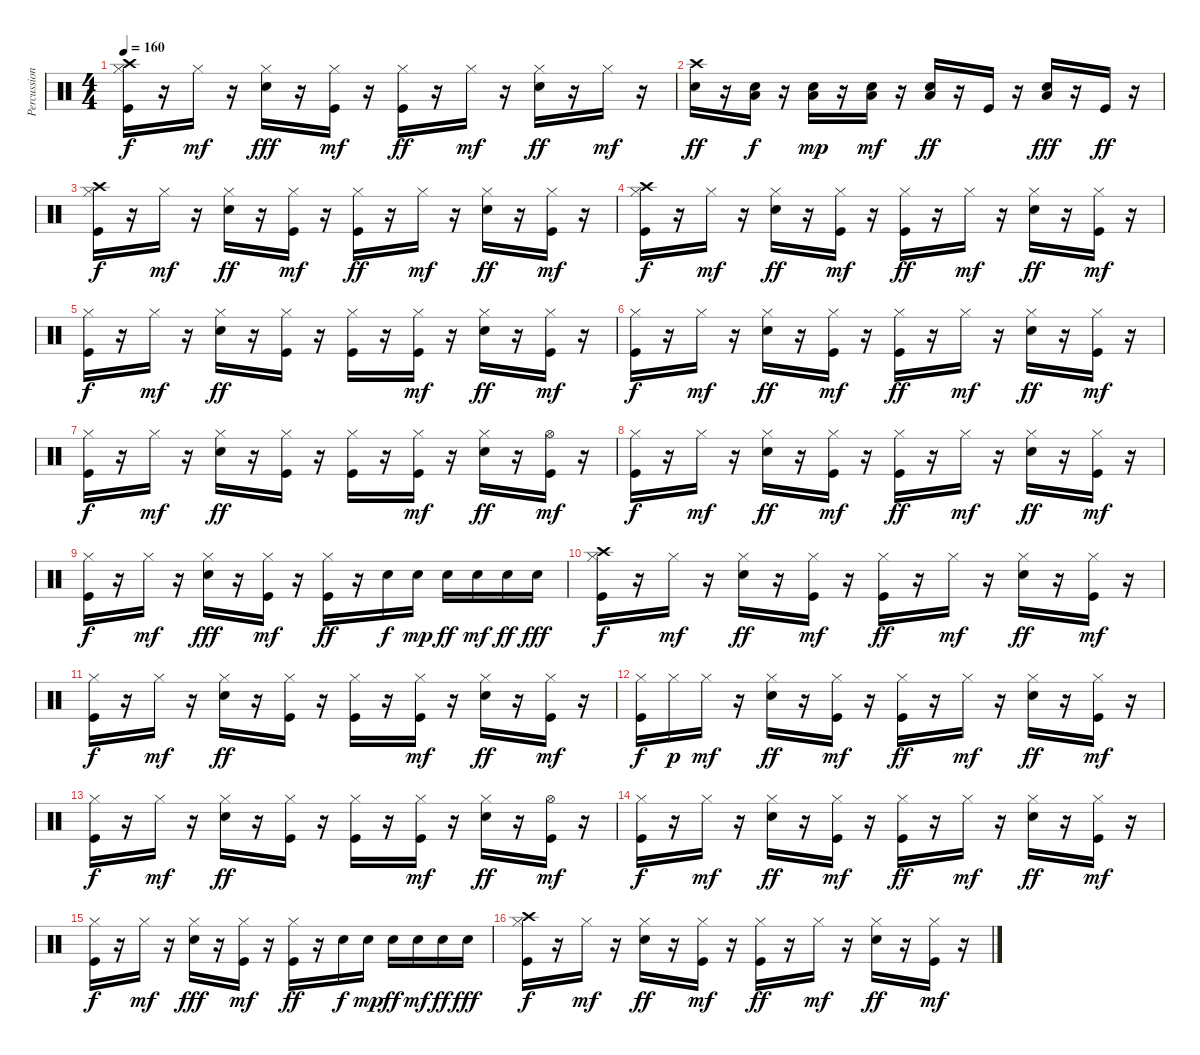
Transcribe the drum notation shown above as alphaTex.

\track ("Percussions" "Percussion") {instrument percussion}
\staff {score}
\articulation defaults
\ts (4 4)
\tempo 160
\clef neutral
\ks c
("Kick (hit)" "Hi-Hat (closed)" "Crash high (hit)").16{dy f} r.16 "Hi-Hat (closed)".16{dy mf} r.16 ("Snare (hit) 2" "Hi-Hat (closed)").16{dy fff} r.16 ("Kick (hit)" "Hi-Hat (closed)").16{dy mf} r.16 ("Kick (hit)" "Hi-Hat (closed)").16{dy ff} r.16 "Hi-Hat (closed)".16{dy mf} r.16 ("Snare (hit) 2" "Hi-Hat (closed)").16{dy ff} r.16 "Hi-Hat (closed)".16{dy mf} r.16 |
("Snare (hit) 2" "Crash high (hit)").16{dy ff} r.16 ("Snare (hit) 2" "Low Floor Tom (hit)").16{dy f} r.16 ("Snare (hit) 2" "Low Floor Tom (hit)").16{dy mp} r.16 ("Snare (hit) 2" "Low Floor Tom (hit)").16{dy mf} r.16 ("Snare (hit) 2" "Low Floor Tom (hit)").16{dy ff} r.16 "Kick (hit)".16 r.16 ("Snare (hit) 2" "Low Floor Tom (hit)").16{dy fff} r.16 "Kick (hit)".16{dy ff} r.16 |
("Kick (hit)" "Hi-Hat (closed)" "Crash high (hit)").16{dy f} r.16 "Hi-Hat (closed)".16{dy mf} r.16 ("Snare (hit) 2" "Hi-Hat (closed)").16{dy ff} r.16 ("Kick (hit)" "Hi-Hat (closed)").16{dy mf} r.16 ("Kick (hit)" "Hi-Hat (closed)").16{dy ff} r.16 "Hi-Hat (closed)".16{dy mf} r.16 ("Snare (hit) 2" "Hi-Hat (closed)").16{dy ff} r.16 ("Kick (hit)" "Hi-Hat (closed)").16{dy mf} r.16 |
("Kick (hit)" "Hi-Hat (closed)" "Crash high (hit)").16{dy f} r.16 "Hi-Hat (closed)".16{dy mf} r.16 ("Snare (hit) 2" "Hi-Hat (closed)").16{dy ff} r.16 ("Kick (hit)" "Hi-Hat (closed)").16{dy mf} r.16 ("Kick (hit)" "Hi-Hat (closed)").16{dy ff} r.16 "Hi-Hat (closed)".16{dy mf} r.16 ("Snare (hit) 2" "Hi-Hat (closed)").16{dy ff} r.16 ("Kick (hit)" "Hi-Hat (closed)").16{dy mf} r.16 |
("Kick (hit)" "Hi-Hat (closed)").16{dy f} r.16 "Hi-Hat (closed)".16{dy mf} r.16 ("Snare (hit) 2" "Hi-Hat (closed)").16{dy ff} r.16 ("Kick (hit)" "Hi-Hat (closed)").16 r.16 ("Kick (hit)" "Hi-Hat (closed)").16 r.16 ("Kick (hit)" "Hi-Hat (closed)").16{dy mf} r.16 ("Snare (hit) 2" "Hi-Hat (closed)").16{dy ff} r.16 ("Kick (hit)" "Hi-Hat (closed)").16{dy mf} r.16 |
("Kick (hit)" "Hi-Hat (closed)").16{dy f} r.16 "Hi-Hat (closed)".16{dy mf} r.16 ("Snare (hit) 2" "Hi-Hat (closed)").16{dy ff} r.16 ("Kick (hit)" "Hi-Hat (closed)").16{dy mf} r.16 ("Kick (hit)" "Hi-Hat (closed)").16{dy ff} r.16 "Hi-Hat (closed)".16{dy mf} r.16 ("Snare (hit) 2" "Hi-Hat (closed)").16{dy ff} r.16 ("Kick (hit)" "Hi-Hat (closed)").16{dy mf} r.16 |
("Kick (hit)" "Hi-Hat (closed)").16{dy f} r.16 "Hi-Hat (closed)".16{dy mf} r.16 ("Snare (hit) 2" "Hi-Hat (closed)").16{dy ff} r.16 ("Kick (hit)" "Hi-Hat (closed)").16 r.16 ("Kick (hit)" "Hi-Hat (closed)").16 r.16 ("Kick (hit)" "Hi-Hat (closed)").16{dy mf} r.16 ("Snare (hit) 2" "Hi-Hat (closed)").16{dy ff} r.16 ("Kick (hit)" "Hi-Hat (open)").16{dy mf} r.16 |
("Kick (hit)" "Hi-Hat (closed)").16{dy f} r.16 "Hi-Hat (closed)".16{dy mf} r.16 ("Snare (hit) 2" "Hi-Hat (closed)").16{dy ff} r.16 ("Kick (hit)" "Hi-Hat (closed)").16{dy mf} r.16 ("Kick (hit)" "Hi-Hat (closed)").16{dy ff} r.16 "Hi-Hat (closed)".16{dy mf} r.16 ("Snare (hit) 2" "Hi-Hat (closed)").16{dy ff} r.16 ("Kick (hit)" "Hi-Hat (closed)").16{dy mf} r.16 |
("Kick (hit)" "Hi-Hat (closed)").16{dy f} r.16 "Hi-Hat (closed)".16{dy mf} r.16 ("Snare (hit) 2" "Hi-Hat (closed)").16{dy fff} r.16 ("Kick (hit)" "Hi-Hat (closed)").16{dy mf} r.16 ("Kick (hit)" "Hi-Hat (closed)").16{dy ff} r.16 "Snare (hit) 2".16{dy f} "Snare (hit) 2".16{dy mp} "Snare (hit) 2".16{dy ff} "Snare (hit) 2".16{dy mf} "Snare (hit) 2".16{dy ff} "Snare (hit) 2".16{dy fff} |
("Kick (hit)" "Hi-Hat (closed)" "Crash high (hit)").16{dy f} r.16 "Hi-Hat (closed)".16{dy mf} r.16 ("Snare (hit) 2" "Hi-Hat (closed)").16{dy ff} r.16 ("Kick (hit)" "Hi-Hat (closed)").16{dy mf} r.16 ("Kick (hit)" "Hi-Hat (closed)").16{dy ff} r.16 "Hi-Hat (closed)".16{dy mf} r.16 ("Snare (hit) 2" "Hi-Hat (closed)").16{dy ff} r.16 ("Kick (hit)" "Hi-Hat (closed)").16{dy mf} r.16 |
("Kick (hit)" "Hi-Hat (closed)").16{dy f} r.16 "Hi-Hat (closed)".16{dy mf} r.16 ("Snare (hit) 2" "Hi-Hat (closed)").16{dy ff} r.16 ("Kick (hit)" "Hi-Hat (closed)").16 r.16 ("Kick (hit)" "Hi-Hat (closed)").16 r.16 ("Kick (hit)" "Hi-Hat (closed)").16{dy mf} r.16 ("Snare (hit) 2" "Hi-Hat (closed)").16{dy ff} r.16 ("Kick (hit)" "Hi-Hat (closed)").16{dy mf} r.16 |
("Kick (hit)" "Hi-Hat (closed)").16{dy f} "Hi-Hat (closed)".16{dy p} "Hi-Hat (closed)".16{dy mf} r.16 ("Snare (hit) 2" "Hi-Hat (closed)").16{dy ff} r.16 ("Kick (hit)" "Hi-Hat (closed)").16{dy mf} r.16 ("Kick (hit)" "Hi-Hat (closed)").16{dy ff} r.16 "Hi-Hat (closed)".16{dy mf} r.16 ("Snare (hit) 2" "Hi-Hat (closed)").16{dy ff} r.16 ("Kick (hit)" "Hi-Hat (closed)").16{dy mf} r.16 |
("Kick (hit)" "Hi-Hat (closed)").16{dy f} r.16 "Hi-Hat (closed)".16{dy mf} r.16 ("Snare (hit) 2" "Hi-Hat (closed)").16{dy ff} r.16 ("Kick (hit)" "Hi-Hat (closed)").16 r.16 ("Kick (hit)" "Hi-Hat (closed)").16 r.16 ("Kick (hit)" "Hi-Hat (closed)").16{dy mf} r.16 ("Snare (hit) 2" "Hi-Hat (closed)").16{dy ff} r.16 ("Kick (hit)" "Hi-Hat (open)").16{dy mf} r.16 |
("Kick (hit)" "Hi-Hat (closed)").16{dy f} r.16 "Hi-Hat (closed)".16{dy mf} r.16 ("Snare (hit) 2" "Hi-Hat (closed)").16{dy ff} r.16 ("Kick (hit)" "Hi-Hat (closed)").16{dy mf} r.16 ("Kick (hit)" "Hi-Hat (closed)").16{dy ff} r.16 "Hi-Hat (closed)".16{dy mf} r.16 ("Snare (hit) 2" "Hi-Hat (closed)").16{dy ff} r.16 ("Kick (hit)" "Hi-Hat (closed)").16{dy mf} r.16 |
("Kick (hit)" "Hi-Hat (closed)").16{dy f} r.16 "Hi-Hat (closed)".16{dy mf} r.16 ("Snare (hit) 2" "Hi-Hat (closed)").16{dy fff} r.16 ("Kick (hit)" "Hi-Hat (closed)").16{dy mf} r.16 ("Kick (hit)" "Hi-Hat (closed)").16{dy ff} r.16 "Snare (hit) 2".16{dy f} "Snare (hit) 2".16{dy mp} "Snare (hit) 2".16{dy ff} "Snare (hit) 2".16{dy mf} "Snare (hit) 2".16{dy ff} "Snare (hit) 2".16{dy fff} |
("Kick (hit)" "Hi-Hat (closed)" "Crash high (hit)").16{dy f} r.16 "Hi-Hat (closed)".16{dy mf} r.16 ("Snare (hit) 2" "Hi-Hat (closed)").16{dy ff} r.16 ("Kick (hit)" "Hi-Hat (closed)").16{dy mf} r.16 ("Kick (hit)" "Hi-Hat (closed)").16{dy ff} r.16 "Hi-Hat (closed)".16{dy mf} r.16 ("Snare (hit) 2" "Hi-Hat (closed)").16{dy ff} r.16 ("Kick (hit)" "Hi-Hat (closed)").16{dy mf} r.16
